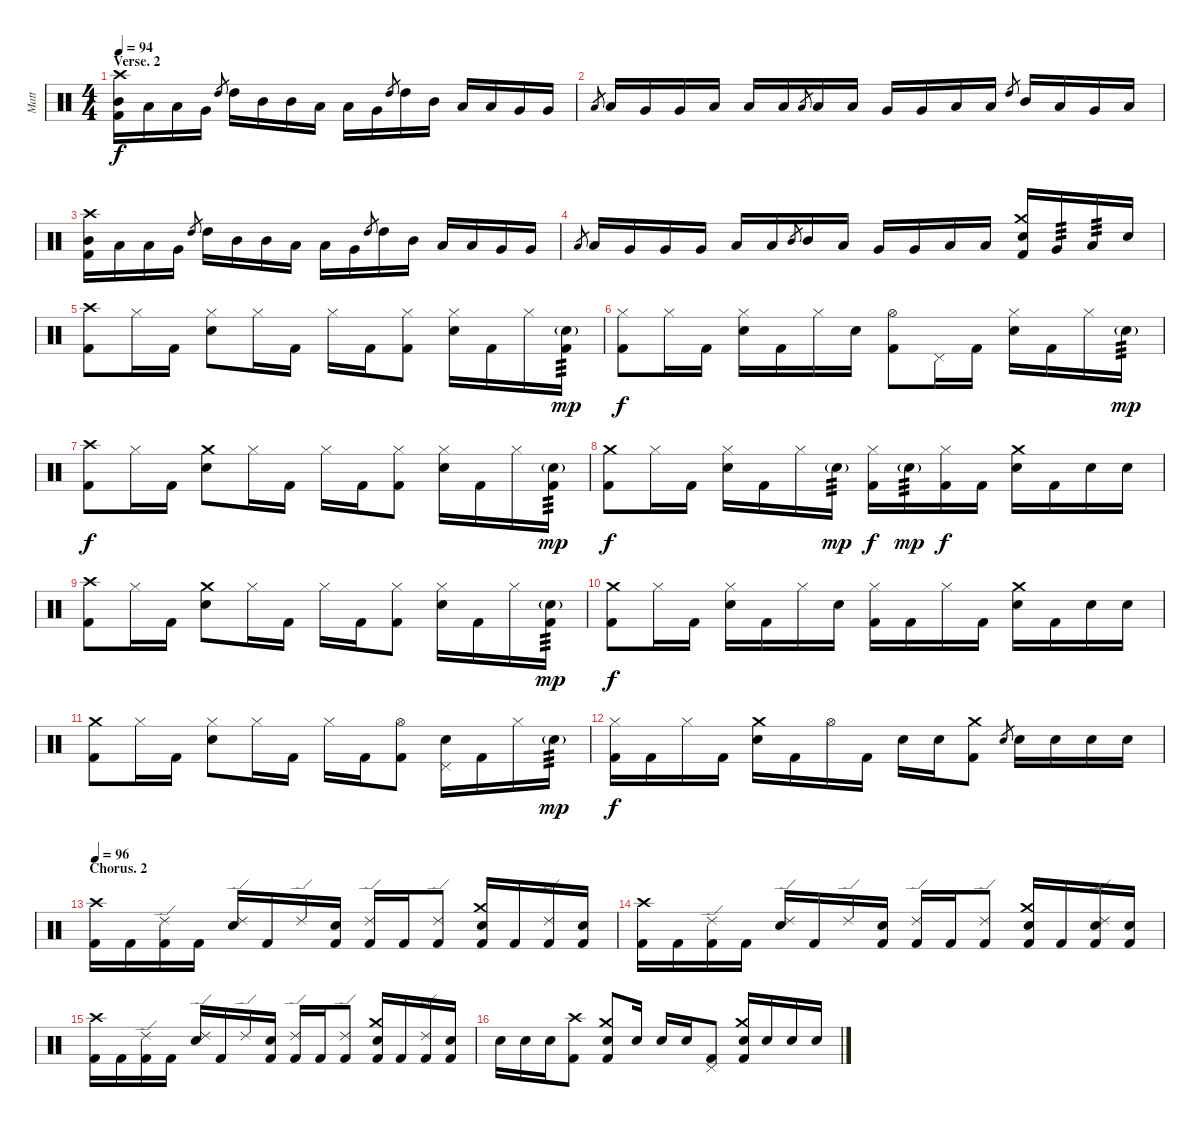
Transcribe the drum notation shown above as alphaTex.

\track ("Matt" "Matt") {instrument percussion}
\staff {score}
\articulation defaults
\ts (4 4)
\section ("" "Verse. 2")
\tempo 94
\clef neutral
\ks c
("Crash high (hit)" "Mid Tom (hit)" "Kick (hit) 2").16{dy f} "Low Tom (hit)".16 "Low Tom (hit)".16 "Very Low Tom (hit)".16 "High Tom (hit)".8{gr} "High Tom (hit)".16 "Mid Tom (hit)".16 "Mid Tom (hit)".16 "Low Tom (hit)".16 "Low Tom (hit)".16 "Very Low Tom (hit)".16 "High Tom (hit)".8{gr} "High Tom (hit)".16 "Mid Tom (hit)".16 "Low Tom (hit)".16 "Low Tom (hit)".16 "Very Low Tom (hit)".16 "Very Low Tom (hit)".16 |
"Low Tom (hit)".8{gr} "Low Tom (hit)".16 "Very Low Tom (hit)".16 "Very Low Tom (hit)".16 "Low Floor Tom (hit)".16 "Low Floor Tom (hit)".16 "Low Floor Tom (hit)".16 "Low Tom (hit)".8{gr} "Low Tom (hit)".16 "Low Tom (hit)".16 "Very Low Tom (hit)".16 "Very Low Tom (hit)".16 "Low Floor Tom (hit)".16 "Low Floor Tom (hit)".16 "High Tom (hit)".8{gr} "Mid Tom (hit)".16 "Low Tom (hit)".16 "Very Low Tom (hit)".16 "Low Floor Tom (hit)".16 |
("Crash high (hit)" "Mid Tom (hit)" "Kick (hit) 2").16 "Low Tom (hit)".16 "Low Tom (hit)".16 "Very Low Tom (hit)".16 "High Tom (hit)".8{gr} "High Tom (hit)".16 "Mid Tom (hit)".16 "Mid Tom (hit)".16 "Low Tom (hit)".16 "Low Tom (hit)".16 "Very Low Tom (hit)".16 "High Tom (hit)".8{gr} "High Tom (hit)".16 "Mid Tom (hit)".16 "Low Tom (hit)".16 "Low Tom (hit)".16 "Very Low Tom (hit)".16 "Very Low Tom (hit)".16 |
"Low Tom (hit)".8{gr} "Low Tom (hit)".16 "Very Low Tom (hit)".16 "Very Low Tom (hit)".16 "Very Low Tom (hit)".16 "Low Floor Tom (hit)".16 "Low Floor Tom (hit)".16 "Mid Tom (hit)".8{gr} "Mid Tom (hit)".16 "Low Tom (hit)".16 "Very Low Tom (hit)".16 "Very Low Tom (hit)".16 "Low Floor Tom (hit)".16 "Low Floor Tom (hit)".16 ("Crash medium (hit)" "Electric Snare (hit)" "Kick (hit) 2").16 "Very Low Tom (hit)".16{tp 3} "Low Floor Tom (hit)".16{tp 3} "Electric Snare (hit)".16 |
("Crash high (hit)" "Kick (hit) 2").8 "Hi-Hat (closed)".16 "Kick (hit) 2".16 ("Hi-Hat (closed)" "Electric Snare (hit)").8 "Hi-Hat (closed)".16 "Kick (hit) 2".16 "Hi-Hat (closed)".16 "Kick (hit) 2".16 ("Hi-Hat (closed)" "Kick (hit) 2").8 ("Hi-Hat (closed)" "Electric Snare (hit)").16 "Kick (hit) 2".16 "Hi-Hat (closed)".16 ("Electric Snare (hit)"{g} "Kick (hit) 2").16{tp 3 dy mp} |
("Hi-Hat (closed)" "Kick (hit) 2").8{dy f} "Hi-Hat (closed)".16 "Kick (hit) 2".16 ("Hi-Hat (closed)" "Electric Snare (hit)").16 "Kick (hit) 2".16 "Hi-Hat (closed)".16 "Electric Snare (hit)".16 ("Hi-Hat (open)" "Kick (hit) 2").8 "Pedal Hi-Hat (hit)".16 "Kick (hit) 2".16 ("Hi-Hat (closed)" "Electric Snare (hit)").16 "Kick (hit) 2".16 "Hi-Hat (closed)".16 "Electric Snare (hit)"{g}.16{tp 3 dy mp} |
("Crash high (hit)" "Kick (hit) 2").8{dy f} "Hi-Hat (closed)".16 "Kick (hit) 2".16 ("Crash medium (hit)" "Electric Snare (hit)").8 "Hi-Hat (closed)".16 "Kick (hit) 2".16 "Hi-Hat (closed)".16 "Kick (hit) 2".16 ("Hi-Hat (closed)" "Kick (hit) 2").8 ("Hi-Hat (closed)" "Electric Snare (hit)").16 "Kick (hit) 2".16 "Hi-Hat (closed)".16 ("Electric Snare (hit)"{g} "Kick (hit) 2").16{tp 3 dy mp} |
("Crash medium (hit)" "Kick (hit) 2").8{dy f} "Hi-Hat (closed)".16 "Kick (hit) 2".16 ("Hi-Hat (closed)" "Electric Snare (hit)").16 "Kick (hit) 2".16 "Hi-Hat (closed)".16 "Electric Snare (hit)"{g}.16{tp 3 dy mp} ("Hi-Hat (closed)" "Kick (hit) 2").16{dy f} "Electric Snare (hit)"{g}.16{tp 3 dy mp} ("Hi-Hat (closed)" "Kick (hit) 2").16{dy f} "Kick (hit) 2".16 ("Crash medium (hit)" "Electric Snare (hit)").16 "Kick (hit) 2".16 "Electric Snare (hit)".16 "Electric Snare (hit)".16 |
("Crash high (hit)" "Kick (hit) 2").8 "Hi-Hat (closed)".16 "Kick (hit) 2".16 ("Crash medium (hit)" "Electric Snare (hit)").8 "Hi-Hat (closed)".16 "Kick (hit) 2".16 "Hi-Hat (closed)".16 "Kick (hit) 2".16 ("Hi-Hat (closed)" "Kick (hit) 2").8 ("Hi-Hat (closed)" "Electric Snare (hit)").16 "Kick (hit) 2".16 "Hi-Hat (closed)".16 ("Electric Snare (hit)"{g} "Kick (hit) 2").16{tp 3 dy mp} |
("Crash medium (hit)" "Kick (hit) 2").8{dy f} "Hi-Hat (closed)".16 "Kick (hit) 2".16 ("Hi-Hat (closed)" "Electric Snare (hit)").16 "Kick (hit) 2".16 "Hi-Hat (closed)".16 "Electric Snare (hit)".16 ("Hi-Hat (closed)" "Kick (hit) 2").16 "Kick (hit) 2".16 "Hi-Hat (closed)".16 "Kick (hit) 2".16 ("Crash medium (hit)" "Electric Snare (hit)").16 "Kick (hit) 2".16 "Electric Snare (hit)".16 "Electric Snare (hit)".16 |
("Crash medium (hit)" "Kick (hit) 2").8 "Hi-Hat (closed)".16 "Kick (hit) 2".16 ("Hi-Hat (closed)" "Electric Snare (hit)").8 "Hi-Hat (closed)".16 "Kick (hit) 2".16 "Hi-Hat (closed)".16 "Kick (hit) 2".16 ("Hi-Hat (open)" "Kick (hit) 2").8 ("Pedal Hi-Hat (hit)" "Electric Snare (hit)").16 "Kick (hit) 2".16 "Hi-Hat (closed)".16 "Electric Snare (hit)"{g}.16{tp 3 dy mp} |
("Hi-Hat (closed)" "Kick (hit) 2").16{dy f} "Kick (hit) 2".16 "Hi-Hat (closed)".16 "Kick (hit) 2".16 ("Crash medium (hit)" "Electric Snare (hit)").16 "Kick (hit) 2".16 "Hi-Hat (open)".16 "Kick (hit) 2".16 "Electric Snare (hit)".16 "Electric Snare (hit)".16 ("Crash medium (hit)" "Kick (hit) 2").8 "Electric Snare (hit)".8{gr} "Electric Snare (hit)".16 "Electric Snare (hit)".16 "Electric Snare (hit)".16 "Electric Snare (hit)".16 |
\section ("" "Chorus. 2")
\tempo 96
("Crash high (hit)" "Kick (hit) 2").16 "Kick (hit) 2".16 ("Ride (edge) 2" "Kick (hit) 2").16 "Kick (hit) 2".16 ("Ride (edge) 2" "Electric Snare (hit)").16 "Kick (hit) 2".16 "Ride (edge) 2".16 ("Electric Snare (hit)" "Kick (hit) 2").16 ("Ride (edge) 2" "Kick (hit) 2").16 "Kick (hit) 2".16 ("Ride (edge) 2" "Kick (hit) 2").8 ("Crash medium (hit)" "Electric Snare (hit)" "Kick (hit) 2").16 "Kick (hit) 2".16 ("Ride (edge) 2" "Kick (hit) 2").16 ("Electric Snare (hit)" "Kick (hit) 2").16 |
("Crash high (hit)" "Kick (hit) 2").16 "Kick (hit) 2".16 ("Ride (edge) 2" "Kick (hit) 2").16 "Kick (hit) 2".16 ("Ride (edge) 2" "Electric Snare (hit)").16 "Kick (hit) 2".16 "Ride (edge) 2".16 ("Electric Snare (hit)" "Kick (hit) 2").16 ("Ride (edge) 2" "Kick (hit) 2").16 "Kick (hit) 2".16 ("Ride (edge) 2" "Kick (hit) 2").8 ("Crash medium (hit)" "Electric Snare (hit)" "Kick (hit) 2").16 "Kick (hit) 2".16 ("Ride (edge) 2" "Electric Snare (hit)" "Kick (hit) 2").16 ("Electric Snare (hit)" "Kick (hit) 2").16 |
("Crash high (hit)" "Kick (hit) 2").16 "Kick (hit) 2".16 ("Ride (edge) 2" "Kick (hit) 2").16 "Kick (hit) 2".16 ("Ride (edge) 2" "Electric Snare (hit)").16 "Kick (hit) 2".16 "Ride (edge) 2".16 ("Electric Snare (hit)" "Kick (hit) 2").16 ("Ride (edge) 2" "Kick (hit) 2").16 "Kick (hit) 2".16 ("Ride (edge) 2" "Kick (hit) 2").8 ("Crash medium (hit)" "Electric Snare (hit)" "Kick (hit) 2").16 "Kick (hit) 2".16 ("Ride (edge) 2" "Kick (hit) 2").16 ("Electric Snare (hit)" "Kick (hit) 2").16 |
"Electric Snare (hit)".16 "Electric Snare (hit)".16 "Electric Snare (hit)".16 ("Crash high (hit)" "Kick (hit) 2").8 ("Crash medium (hit)" "Electric Snare (hit)" "Kick (hit) 2").8 "Electric Snare (hit)".16 "Electric Snare (hit)".16 "Electric Snare (hit)".16 ("Pedal Hi-Hat (hit)" "Kick (hit) 2").8 ("Crash medium (hit)" "Electric Snare (hit)" "Kick (hit) 2").16 "Electric Snare (hit)".16 "Electric Snare (hit)".16 "Electric Snare (hit)".16
